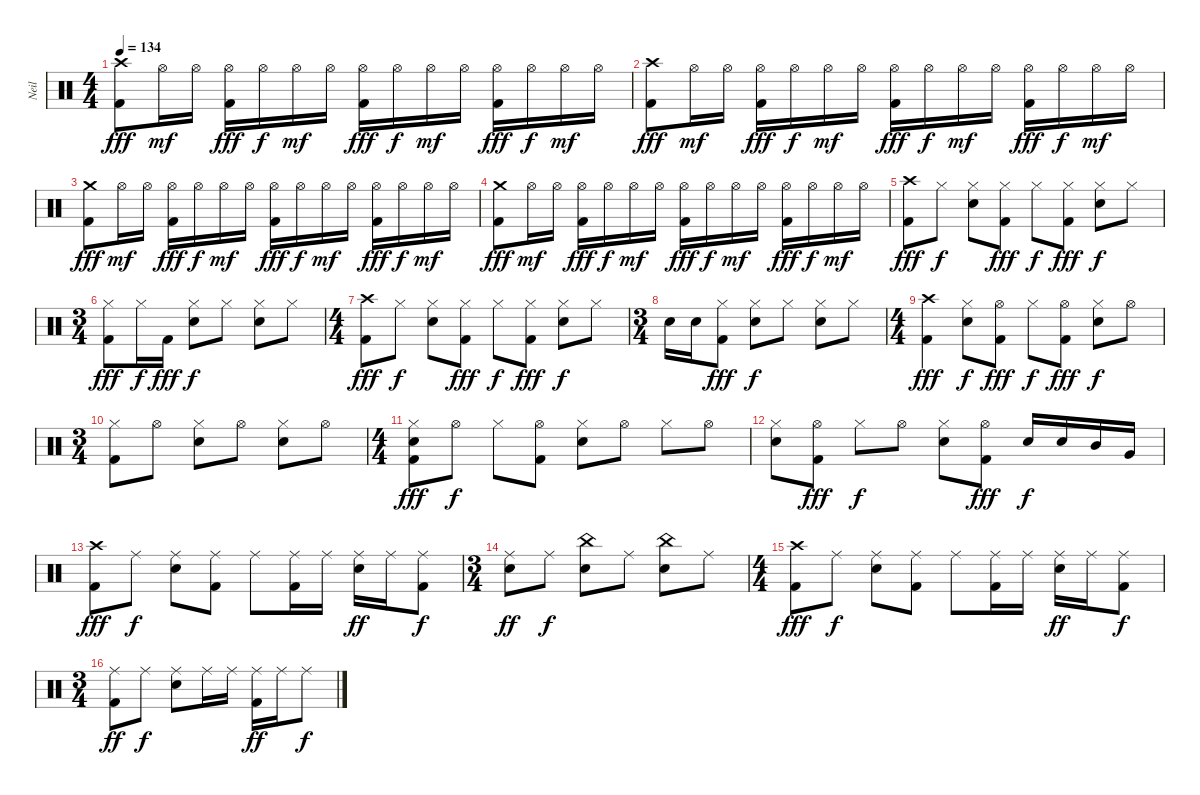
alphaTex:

\track ("Neil" "Neil") {instrument percussion}
\staff {score}
\articulation defaults
\ts (4 4)
\tempo 134
\clef neutral
\ks c
("Crash high (hit)" "Kick (hit) 2").8{dy fff} "Hi-Hat (open)".16{dy mf} "Hi-Hat (open)".16 ("Hi-Hat (open)" "Kick (hit) 2").16{dy fff} "Hi-Hat (open)".16{dy f} "Hi-Hat (open)".16{dy mf} "Hi-Hat (open)".16 ("Hi-Hat (open)" "Kick (hit) 2").16{dy fff} "Hi-Hat (open)".16{dy f} "Hi-Hat (open)".16{dy mf} "Hi-Hat (open)".16 ("Hi-Hat (open)" "Kick (hit) 2").16{dy fff} "Hi-Hat (open)".16{dy f} "Hi-Hat (open)".16{dy mf} "Hi-Hat (open)".16 |
("Crash high (hit)" "Kick (hit) 2").8{dy fff} "Hi-Hat (open)".16{dy mf} "Hi-Hat (open)".16 ("Hi-Hat (open)" "Kick (hit) 2").16{dy fff} "Hi-Hat (open)".16{dy f} "Hi-Hat (open)".16{dy mf} "Hi-Hat (open)".16 ("Hi-Hat (open)" "Kick (hit) 2").16{dy fff} "Hi-Hat (open)".16{dy f} "Hi-Hat (open)".16{dy mf} "Hi-Hat (open)".16 ("Hi-Hat (open)" "Kick (hit) 2").16{dy fff} "Hi-Hat (open)".16{dy f} "Hi-Hat (open)".16{dy mf} "Hi-Hat (open)".16 |
("Crash medium (hit)" "Kick (hit) 2").8{dy fff} "Hi-Hat (open)".16{dy mf} "Hi-Hat (open)".16 ("Hi-Hat (open)" "Kick (hit) 2").16{dy fff} "Hi-Hat (open)".16{dy f} "Hi-Hat (open)".16{dy mf} "Hi-Hat (open)".16 ("Hi-Hat (open)" "Kick (hit) 2").16{dy fff} "Hi-Hat (open)".16{dy f} "Hi-Hat (open)".16{dy mf} "Hi-Hat (open)".16 ("Hi-Hat (open)" "Kick (hit) 2").16{dy fff} "Hi-Hat (open)".16{dy f} "Hi-Hat (open)".16{dy mf} "Hi-Hat (open)".16 |
("Crash medium (hit)" "Kick (hit) 2").8{dy fff} "Hi-Hat (open)".16{dy mf} "Hi-Hat (open)".16 ("Hi-Hat (open)" "Kick (hit) 2").16{dy fff} "Hi-Hat (open)".16{dy f} "Hi-Hat (open)".16{dy mf} "Hi-Hat (open)".16 ("Hi-Hat (open)" "Kick (hit) 2").16{dy fff} "Hi-Hat (open)".16{dy f} "Hi-Hat (open)".16{dy mf} "Hi-Hat (open)".16 ("Hi-Hat (open)" "Kick (hit) 2").16{dy fff} "Hi-Hat (open)".16{dy f} "Hi-Hat (open)".16{dy mf} "Hi-Hat (open)".16 |
("Crash high (hit)" "Kick (hit) 2").8{dy fff} "Hi-Hat (closed)".8{dy f} ("Hi-Hat (closed)" "Snare (hit) 2").8 ("Hi-Hat (closed)" "Kick (hit) 2").8{dy fff} "Hi-Hat (closed)".8{dy f} ("Hi-Hat (closed)" "Kick (hit) 2").8{dy fff} ("Hi-Hat (closed)" "Snare (hit) 2").8{dy f} "Hi-Hat (closed)".8 |
\ts (3 4)
("Hi-Hat (closed)" "Kick (hit) 2").8{dy fff} "Hi-Hat (closed)".16{dy f} "Kick (hit) 2".16{dy fff} ("Hi-Hat (closed)" "Snare (hit) 2").8{dy f} "Hi-Hat (closed)".8 ("Hi-Hat (closed)" "Snare (hit) 2").8 "Hi-Hat (closed)".8 |
\ts (4 4)
("Crash high (hit)" "Kick (hit) 2").8{dy fff} "Hi-Hat (closed)".8{dy f} ("Hi-Hat (closed)" "Snare (hit) 2").8 ("Hi-Hat (closed)" "Kick (hit) 2").8{dy fff} "Hi-Hat (closed)".8{dy f} ("Hi-Hat (closed)" "Kick (hit) 2").8{dy fff} ("Hi-Hat (closed)" "Snare (hit) 2").8{dy f} "Hi-Hat (closed)".8 |
\ts (3 4)
"Snare (hit) 2".16 "Snare (hit) 2".16 ("Hi-Hat (closed)" "Kick (hit) 2").8{dy fff} ("Hi-Hat (closed)" "Snare (hit) 2").8{dy f} "Hi-Hat (closed)".8 ("Hi-Hat (closed)" "Snare (hit) 2").8 "Hi-Hat (closed)".8 |
\ts (4 4)
("Crash high (hit)" "Kick (hit) 2").4{dy fff} ("Hi-Hat (closed)" "Snare (hit) 2").8{dy f} ("Hi-Hat (open)" "Kick (hit) 2").8{dy fff} "Hi-Hat (closed)".8{dy f} ("Hi-Hat (open)" "Kick (hit) 2").8{dy fff} ("Hi-Hat (closed)" "Snare (hit) 2").8{dy f} "Hi-Hat (open)".8 |
\ts (3 4)
("Kick (hit) 2" "Hi-Hat (closed)").8 "Hi-Hat (open)".8 ("Snare (hit) 2" "Hi-Hat (closed)").8 "Hi-Hat (open)".8 ("Snare (hit) 2" "Hi-Hat (closed)").8 "Hi-Hat (open)".8 |
\ts (4 4)
("Hi-Hat (closed)" "Kick (hit) 2" "Snare (hit) 2").8{dy fff} "Hi-Hat (open)".8{dy f} "Hi-Hat (closed)".8 ("Kick (hit) 2" "Hi-Hat (open)").8 ("Snare (hit) 2" "Hi-Hat (closed)").8 "Hi-Hat (open)".8 "Hi-Hat (closed)".8 "Hi-Hat (open)".8 |
("Hi-Hat (closed)" "Snare (hit) 2").8 ("Hi-Hat (open)" "Kick (hit) 2").8{dy fff} "Hi-Hat (closed)".8{dy f} "Hi-Hat (open)".8 ("Hi-Hat (closed)" "Snare (hit) 2").8 ("Hi-Hat (open)" "Kick (hit) 2").8{dy fff} "Snare (hit) 2".16{dy f} "Snare (hit) 2".16 "Mid Tom (hit)".16 "Very Low Tom (hit)".16 |
("Crash high (hit)" "Kick (hit) 2").8{dy fff} "Ride (middle)".8{dy f} ("Ride (middle)" "Snare (hit) 2").8 ("Ride (middle)" "Kick (hit) 2").8 "Ride (middle)".8 ("Ride (middle)" "Kick (hit) 2").16 "Ride (middle)".16 ("Ride (middle)" "Snare (hit) 2").16{dy ff} "Ride (middle)".16 ("Ride (middle)" "Kick (hit) 2").8{dy f} |
\ts (3 4)
("Ride (middle)" "Snare (hit) 2").8{dy ff} "Ride (middle)".8{dy f} ("China (hit)" "Snare (hit) 2").8 "Ride (middle)".8 ("China (hit)" "Snare (hit) 2").8 "Ride (middle)".8 |
\ts (4 4)
("Crash high (hit)" "Kick (hit) 2").8{dy fff} "Ride (middle)".8{dy f} ("Ride (middle)" "Snare (hit) 2").8 ("Ride (middle)" "Kick (hit) 2").8 "Ride (middle)".8 ("Ride (middle)" "Kick (hit) 2").16 "Ride (middle)".16 ("Ride (middle)" "Snare (hit) 2").16{dy ff} "Ride (middle)".16 ("Ride (middle)" "Kick (hit) 2").8{dy f} |
\ts (3 4)
("Kick (hit) 2" "Ride (middle)").8{dy ff} "Ride (middle)".8{dy f} ("Ride (middle)" "Snare (hit) 2").8 "Ride (middle)".16 "Ride (middle)".16 ("Kick (hit) 2" "Ride (middle)").16{dy ff} "Ride (middle)".16 "Ride (middle)".8{dy f}
